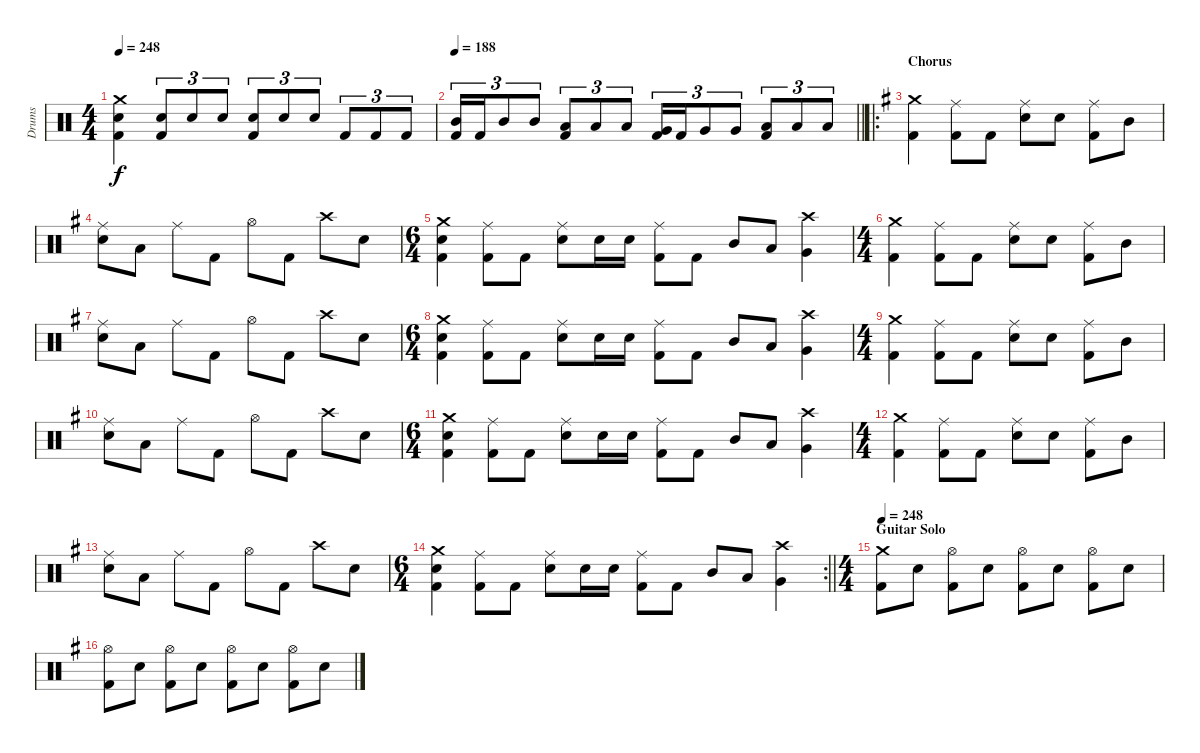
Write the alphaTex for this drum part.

\track ("Drums" "Drums") {instrument percussion}
\staff {score}
\articulation defaults
\ts (4 4)
\tempo 248
\clef neutral
\ks c
("Crash medium (hit)" "Snare (hit) 2" "Kick (hit) 2").4{dy f} ("Snare (hit) 2" "Kick (hit) 2").8{tu (3 2)} "Snare (hit) 2".8{tu (3 2)} "Snare (hit) 2".8{tu (3 2)} ("Snare (hit) 2" "Kick (hit) 2").8{tu (3 2)} "Snare (hit) 2".8{tu (3 2)} "Snare (hit) 2".8{tu (3 2)} "Kick (hit) 2".8{tu (3 2)} "Kick (hit) 2".8{tu (3 2)} "Kick (hit) 2".8{tu (3 2)} |
\tempo 188
\barLineRight lightlight
("Mid Tom (hit)" "Kick (hit) 2").16{tu (3 2)} "Kick (hit) 2".16{tu (3 2)} "Mid Tom (hit)".8{tu (3 2)} "Mid Tom (hit)".8{tu (3 2)} ("Low Tom (hit)" "Kick (hit) 2").8{tu (3 2)} "Low Tom (hit)".8{tu (3 2)} "Low Tom (hit)".8{tu (3 2)} ("Very Low Tom (hit)" "Kick (hit) 2").16{tu (3 2)} "Kick (hit) 2".16{tu (3 2)} "Very Low Tom (hit)".8{tu (3 2)} "Very Low Tom (hit)".8{tu (3 2)} ("Low Floor Tom (hit)" "Kick (hit) 2").8{tu (3 2)} "Low Floor Tom (hit)".8{tu (3 2)} "Low Floor Tom (hit)".8{tu (3 2)} |
\ro
\section ("" "Chorus")
\ks g
("Crash medium (hit)" "Kick (hit) 2").4 ("Ride (middle)" "Kick (hit) 2").8 "Kick (hit) 2".8 ("Ride (middle)" "Snare (hit) 2").8 "Snare (hit) 2".8 ("Ride (middle)" "Kick (hit) 2").8 "Mid Tom (hit)".8 |
("Ride (middle)" "Snare (hit) 2").8 "Low Tom (hit)".8 "Ride (middle)".8 "Kick (hit) 2".8 "Hi-Hat (open)".8 "Kick (hit) 2".8 "Crash high (hit)".8 "Snare (hit) 2".8 |
\ts (6 4)
("Crash medium (hit)" "Snare (hit) 2" "Kick (hit) 2").4 ("Ride (middle)" "Kick (hit) 2").8 "Kick (hit) 2".8 ("Ride (middle)" "Snare (hit) 2").8 "Snare (hit) 2".16 "Snare (hit) 2".16 ("Ride (middle)" "Kick (hit) 2").8 "Kick (hit) 2".8 "Mid Tom (hit)".8 "Low Tom (hit)".8 ("Crash high (hit)" "Very Low Tom (hit)").4 |
\ts (4 4)
("Crash medium (hit)" "Kick (hit) 2").4 ("Ride (middle)" "Kick (hit) 2").8 "Kick (hit) 2".8 ("Ride (middle)" "Snare (hit) 2").8 "Snare (hit) 2".8 ("Ride (middle)" "Kick (hit) 2").8 "Mid Tom (hit)".8 |
("Ride (middle)" "Snare (hit) 2").8 "Low Tom (hit)".8 "Ride (middle)".8 "Kick (hit) 2".8 "Hi-Hat (open)".8 "Kick (hit) 2".8 "Crash high (hit)".8 "Snare (hit) 2".8 |
\ts (6 4)
("Crash medium (hit)" "Snare (hit) 2" "Kick (hit) 2").4 ("Ride (middle)" "Kick (hit) 2").8 "Kick (hit) 2".8 ("Ride (middle)" "Snare (hit) 2").8 "Snare (hit) 2".16 "Snare (hit) 2".16 ("Ride (middle)" "Kick (hit) 2").8 "Kick (hit) 2".8 "Mid Tom (hit)".8 "Low Tom (hit)".8 ("Crash high (hit)" "Very Low Tom (hit)").4 |
\ts (4 4)
("Crash medium (hit)" "Kick (hit) 2").4 ("Ride (middle)" "Kick (hit) 2").8 "Kick (hit) 2".8 ("Ride (middle)" "Snare (hit) 2").8 "Snare (hit) 2".8 ("Ride (middle)" "Kick (hit) 2").8 "Mid Tom (hit)".8 |
("Ride (middle)" "Snare (hit) 2").8 "Low Tom (hit)".8 "Ride (middle)".8 "Kick (hit) 2".8 "Hi-Hat (open)".8 "Kick (hit) 2".8 "Crash high (hit)".8 "Snare (hit) 2".8 |
\ts (6 4)
("Crash medium (hit)" "Snare (hit) 2" "Kick (hit) 2").4 ("Ride (middle)" "Kick (hit) 2").8 "Kick (hit) 2".8 ("Ride (middle)" "Snare (hit) 2").8 "Snare (hit) 2".16 "Snare (hit) 2".16 ("Ride (middle)" "Kick (hit) 2").8 "Kick (hit) 2".8 "Mid Tom (hit)".8 "Low Tom (hit)".8 ("Crash high (hit)" "Very Low Tom (hit)").4 |
\ts (4 4)
("Crash medium (hit)" "Kick (hit) 2").4 ("Ride (middle)" "Kick (hit) 2").8 "Kick (hit) 2".8 ("Ride (middle)" "Snare (hit) 2").8 "Snare (hit) 2".8 ("Ride (middle)" "Kick (hit) 2").8 "Mid Tom (hit)".8 |
("Ride (middle)" "Snare (hit) 2").8 "Low Tom (hit)".8 "Ride (middle)".8 "Kick (hit) 2".8 "Hi-Hat (open)".8 "Kick (hit) 2".8 "Crash high (hit)".8 "Snare (hit) 2".8 |
\rc 2
\ts (6 4)
\barLineRight lightlight
("Crash medium (hit)" "Snare (hit) 2" "Kick (hit) 2").4 ("Ride (middle)" "Kick (hit) 2").8 "Kick (hit) 2".8 ("Ride (middle)" "Snare (hit) 2").8 "Snare (hit) 2".16 "Snare (hit) 2".16 ("Ride (middle)" "Kick (hit) 2").8 "Kick (hit) 2".8 "Mid Tom (hit)".8 "Low Tom (hit)".8 ("Crash high (hit)" "Very Low Tom (hit)").4 |
\ts (4 4)
\section ("" "Guitar Solo")
\tempo 248
("Crash medium (hit)" "Kick (hit) 2").8 "Snare (hit) 2".8 ("Hi-Hat (open)" "Kick (hit) 2").8 "Snare (hit) 2".8 ("Hi-Hat (open)" "Kick (hit) 2").8 "Snare (hit) 2".8 ("Hi-Hat (open)" "Kick (hit) 2").8 "Snare (hit) 2".8 |
("Hi-Hat (open)" "Kick (hit) 2").8 "Snare (hit) 2".8 ("Hi-Hat (open)" "Kick (hit) 2").8 "Snare (hit) 2".8 ("Hi-Hat (open)" "Kick (hit) 2").8 "Snare (hit) 2".8 ("Hi-Hat (open)" "Kick (hit) 2").8 "Snare (hit) 2".8
